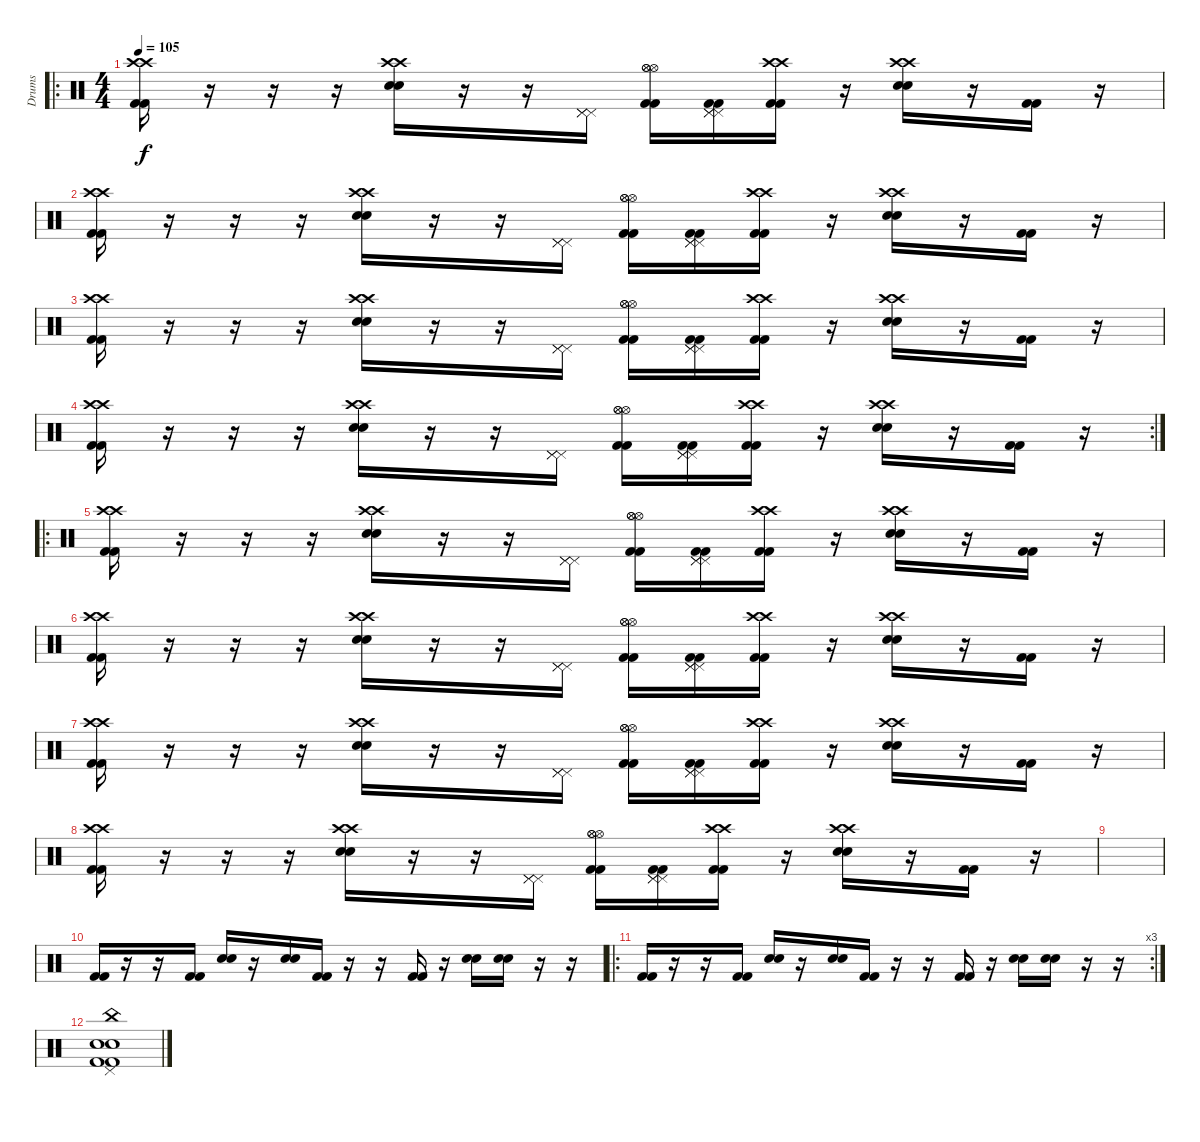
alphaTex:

\track ("Drums" "Drums") {instrument percussion}
\staff {score}
\articulation defaults
\ro
\ts (4 4)
\tempo 105
\clef neutral
\ks c
("Crash high (hit)" "Crash high (hit)" "Kick (hit) 2" "Kick (hit) 2").16{dy f} r.16 r.16 r.16 ("Crash high (hit)" "Crash high (hit)" "Electric Snare (hit)" "Electric Snare (hit)").16 r.16 r.16 ("Pedal Hi-Hat (hit)" "Pedal Hi-Hat (hit)" "Pedal Hi-Hat (hit)").16 ("Hi-Hat (open)" "Hi-Hat (open)" "Hi-Hat (open)" "Kick (hit) 2" "Kick (hit) 2").16 ("Pedal Hi-Hat (hit)" "Pedal Hi-Hat (hit)" "Pedal Hi-Hat (hit)" "Kick (hit) 2" "Kick (hit) 2").16 ("Crash high (hit)" "Crash high (hit)" "Kick (hit) 2" "Kick (hit) 2").16 r.16 ("Crash high (hit)" "Crash high (hit)" "Electric Snare (hit)" "Electric Snare (hit)").16 r.16 ("Kick (hit) 2" "Kick (hit) 2").16 r.16 |
("Crash high (hit)" "Crash high (hit)" "Kick (hit) 2" "Kick (hit) 2").16 r.16 r.16 r.16 ("Crash high (hit)" "Crash high (hit)" "Electric Snare (hit)" "Electric Snare (hit)").16 r.16 r.16 ("Pedal Hi-Hat (hit)" "Pedal Hi-Hat (hit)" "Pedal Hi-Hat (hit)").16 ("Hi-Hat (open)" "Hi-Hat (open)" "Hi-Hat (open)" "Kick (hit) 2" "Kick (hit) 2").16 ("Pedal Hi-Hat (hit)" "Pedal Hi-Hat (hit)" "Pedal Hi-Hat (hit)" "Kick (hit) 2" "Kick (hit) 2").16 ("Crash high (hit)" "Crash high (hit)" "Kick (hit) 2" "Kick (hit) 2").16 r.16 ("Crash high (hit)" "Crash high (hit)" "Electric Snare (hit)" "Electric Snare (hit)").16 r.16 ("Kick (hit) 2" "Kick (hit) 2").16 r.16 |
("Crash high (hit)" "Crash high (hit)" "Kick (hit) 2" "Kick (hit) 2").16 r.16 r.16 r.16 ("Crash high (hit)" "Crash high (hit)" "Electric Snare (hit)" "Electric Snare (hit)").16 r.16 r.16 ("Pedal Hi-Hat (hit)" "Pedal Hi-Hat (hit)" "Pedal Hi-Hat (hit)").16 ("Hi-Hat (open)" "Hi-Hat (open)" "Hi-Hat (open)" "Kick (hit) 2" "Kick (hit) 2").16 ("Pedal Hi-Hat (hit)" "Pedal Hi-Hat (hit)" "Pedal Hi-Hat (hit)" "Kick (hit) 2" "Kick (hit) 2").16 ("Crash high (hit)" "Crash high (hit)" "Kick (hit) 2" "Kick (hit) 2").16 r.16 ("Crash high (hit)" "Crash high (hit)" "Electric Snare (hit)" "Electric Snare (hit)").16 r.16 ("Kick (hit) 2" "Kick (hit) 2").16 r.16 |
\rc 2
("Crash high (hit)" "Crash high (hit)" "Kick (hit) 2" "Kick (hit) 2").16 r.16 r.16 r.16 ("Crash high (hit)" "Crash high (hit)" "Electric Snare (hit)" "Electric Snare (hit)").16 r.16 r.16 ("Pedal Hi-Hat (hit)" "Pedal Hi-Hat (hit)" "Pedal Hi-Hat (hit)").16 ("Hi-Hat (open)" "Hi-Hat (open)" "Hi-Hat (open)" "Kick (hit) 2" "Kick (hit) 2").16 ("Pedal Hi-Hat (hit)" "Pedal Hi-Hat (hit)" "Pedal Hi-Hat (hit)" "Kick (hit) 2" "Kick (hit) 2").16 ("Crash high (hit)" "Crash high (hit)" "Kick (hit) 2" "Kick (hit) 2").16 r.16 ("Crash high (hit)" "Crash high (hit)" "Electric Snare (hit)" "Electric Snare (hit)").16 r.16 ("Kick (hit) 2" "Kick (hit) 2").16 r.16 |
\ro
("Crash high (hit)" "Crash high (hit)" "Kick (hit) 2" "Kick (hit) 2").16 r.16 r.16 r.16 ("Crash high (hit)" "Crash high (hit)" "Electric Snare (hit)" "Electric Snare (hit)").16 r.16 r.16 ("Pedal Hi-Hat (hit)" "Pedal Hi-Hat (hit)" "Pedal Hi-Hat (hit)").16 ("Hi-Hat (open)" "Hi-Hat (open)" "Hi-Hat (open)" "Kick (hit) 2" "Kick (hit) 2").16 ("Pedal Hi-Hat (hit)" "Pedal Hi-Hat (hit)" "Pedal Hi-Hat (hit)" "Kick (hit) 2" "Kick (hit) 2").16 ("Crash high (hit)" "Crash high (hit)" "Kick (hit) 2" "Kick (hit) 2").16 r.16 ("Crash high (hit)" "Crash high (hit)" "Electric Snare (hit)" "Electric Snare (hit)").16 r.16 ("Kick (hit) 2" "Kick (hit) 2").16 r.16 |
("Crash high (hit)" "Crash high (hit)" "Kick (hit) 2" "Kick (hit) 2").16 r.16 r.16 r.16 ("Crash high (hit)" "Crash high (hit)" "Electric Snare (hit)" "Electric Snare (hit)").16 r.16 r.16 ("Pedal Hi-Hat (hit)" "Pedal Hi-Hat (hit)" "Pedal Hi-Hat (hit)").16 ("Hi-Hat (open)" "Hi-Hat (open)" "Hi-Hat (open)" "Kick (hit) 2" "Kick (hit) 2").16 ("Pedal Hi-Hat (hit)" "Pedal Hi-Hat (hit)" "Pedal Hi-Hat (hit)" "Kick (hit) 2" "Kick (hit) 2").16 ("Crash high (hit)" "Crash high (hit)" "Kick (hit) 2" "Kick (hit) 2").16 r.16 ("Crash high (hit)" "Crash high (hit)" "Electric Snare (hit)" "Electric Snare (hit)").16 r.16 ("Kick (hit) 2" "Kick (hit) 2").16 r.16 |
("Crash high (hit)" "Crash high (hit)" "Kick (hit) 2" "Kick (hit) 2").16 r.16 r.16 r.16 ("Crash high (hit)" "Crash high (hit)" "Electric Snare (hit)" "Electric Snare (hit)").16 r.16 r.16 ("Pedal Hi-Hat (hit)" "Pedal Hi-Hat (hit)" "Pedal Hi-Hat (hit)").16 ("Hi-Hat (open)" "Hi-Hat (open)" "Hi-Hat (open)" "Kick (hit) 2" "Kick (hit) 2").16 ("Pedal Hi-Hat (hit)" "Pedal Hi-Hat (hit)" "Pedal Hi-Hat (hit)" "Kick (hit) 2" "Kick (hit) 2").16 ("Crash high (hit)" "Crash high (hit)" "Kick (hit) 2" "Kick (hit) 2").16 r.16 ("Crash high (hit)" "Crash high (hit)" "Electric Snare (hit)" "Electric Snare (hit)").16 r.16 ("Kick (hit) 2" "Kick (hit) 2").16 r.16 |
("Crash high (hit)" "Crash high (hit)" "Kick (hit) 2" "Kick (hit) 2").16 r.16 r.16 r.16 ("Crash high (hit)" "Crash high (hit)" "Electric Snare (hit)" "Electric Snare (hit)").16 r.16 r.16 ("Pedal Hi-Hat (hit)" "Pedal Hi-Hat (hit)" "Pedal Hi-Hat (hit)").16 ("Hi-Hat (open)" "Hi-Hat (open)" "Hi-Hat (open)" "Kick (hit) 2" "Kick (hit) 2").16 ("Pedal Hi-Hat (hit)" "Pedal Hi-Hat (hit)" "Pedal Hi-Hat (hit)" "Kick (hit) 2" "Kick (hit) 2").16 ("Crash high (hit)" "Crash high (hit)" "Kick (hit) 2" "Kick (hit) 2").16 r.16 ("Crash high (hit)" "Crash high (hit)" "Electric Snare (hit)" "Electric Snare (hit)").16 r.16 ("Kick (hit) 2" "Kick (hit) 2").16 r.16 |
|
("Kick (hit) 2" "Kick (hit) 2").16{volume 13} r.16 r.16 ("Kick (hit) 2" "Kick (hit) 2").16 ("Electric Snare (hit)" "Electric Snare (hit)").16 r.16 ("Electric Snare (hit)" "Electric Snare (hit)").16 ("Kick (hit) 2" "Kick (hit) 2").16 r.16 r.16 ("Kick (hit) 2" "Kick (hit) 2").16 r.16 ("Electric Snare (hit)" "Electric Snare (hit)").16 ("Electric Snare (hit)" "Electric Snare (hit)").16 r.16 r.16 |
\ro
\rc 3
("Kick (hit) 2" "Kick (hit) 2").16 r.16 r.16 ("Kick (hit) 2" "Kick (hit) 2").16 ("Electric Snare (hit)" "Electric Snare (hit)").16 r.16 ("Electric Snare (hit)" "Electric Snare (hit)").16 ("Kick (hit) 2" "Kick (hit) 2").16 r.16 r.16 ("Kick (hit) 2" "Kick (hit) 2").16 r.16 ("Electric Snare (hit)" "Electric Snare (hit)").16 ("Electric Snare (hit)" "Electric Snare (hit)").16 r.16 r.16 |
("Pedal Hi-Hat (hit)" "China (hit)" "Electric Snare (hit)" "Electric Snare (hit)" "Kick (hit) 2" "Kick (hit) 2").1
